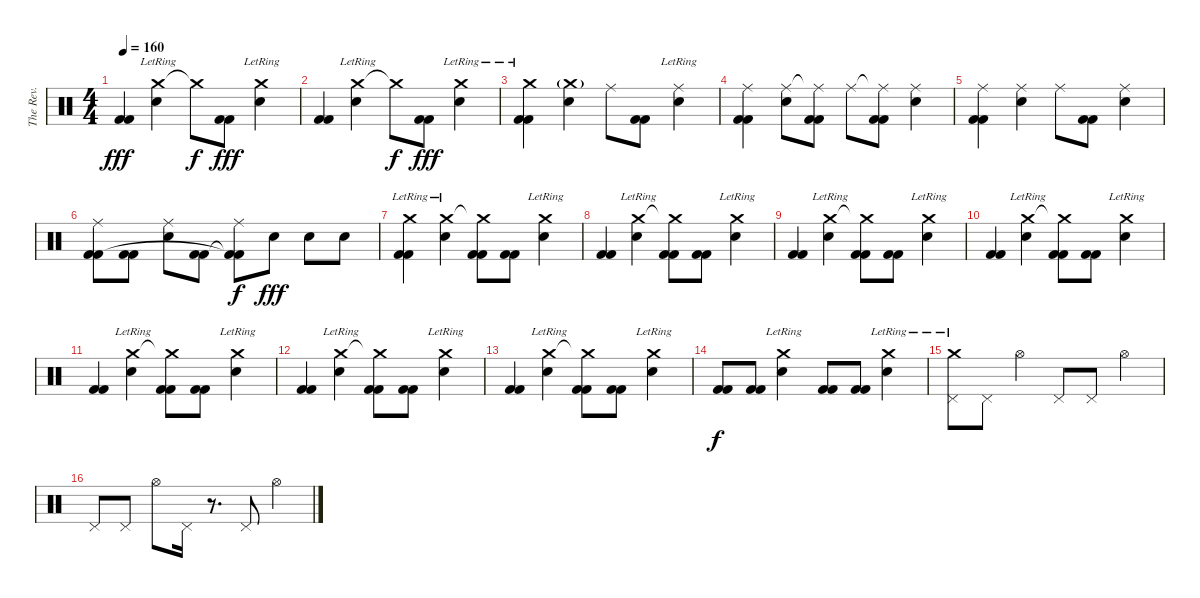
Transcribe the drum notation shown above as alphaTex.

\track ("The Rev." "The Rev.") {instrument percussion}
\staff {score}
\articulation defaults
\ts (4 4)
\tempo 160
\clef neutral
\ks c
("Kick (hit) 2" "Kick (hit) 2").4{dy fff} ("Crash medium (hit)"{lr} "Electric Snare (hit)").4 "Crash medium (hit)"{t}.8{dy f} ("Kick (hit) 2" "Kick (hit) 2").8{dy fff} ("Crash medium (hit)"{lr} "Electric Snare (hit)").4 |
("Kick (hit) 2" "Kick (hit) 2").4 ("Crash medium (hit)"{lr} "Electric Snare (hit)").4 "Crash medium (hit)"{t}.8{dy f} ("Kick (hit) 2" "Kick (hit) 2").8{dy fff} ("Crash medium (hit)"{lr} "Electric Snare (hit)").4 |
("Crash medium (hit)"{lr} "Kick (hit) 2" "Kick (hit) 2").4 ("Crash medium (hit)"{g} "Electric Snare (hit)").4 "Ride (middle)".8 ("Kick (hit) 2" "Kick (hit) 2").8 ("Ride (middle)"{lr} "Electric Snare (hit)").4 |
("Ride (middle)" "Kick (hit) 2" "Kick (hit) 2").4 ("Ride (middle)" "Electric Snare (hit)").8 ("Ride (middle)"{t} "Kick (hit) 2" "Kick (hit) 2").8 "Ride (middle)".8 ("Ride (middle)"{t} "Kick (hit) 2" "Kick (hit) 2").8 ("Ride (middle)" "Electric Snare (hit)").4 |
("Ride (middle)" "Kick (hit) 2" "Kick (hit) 2").4 ("Ride (middle)" "Electric Snare (hit)").4 "Ride (middle)".8 ("Kick (hit) 2" "Kick (hit) 2").8 ("Ride (middle)" "Electric Snare (hit)").4 |
("Ride (middle)" "Kick (hit) 2" "Kick (hit) 2").8 ("Kick (hit) 2" "Kick (hit) 2").8 ("Ride (middle)" "Electric Snare (hit)").8 ("Kick (hit) 2" "Kick (hit) 2").8 ("Ride (middle)" "Kick (hit) 2"{t} "Kick (hit) 2"{t}).8{dy f} "Electric Snare (hit)".8{dy fff} "Electric Snare (hit)".8 "Electric Snare (hit)".8 |
("Crash medium (hit)"{lr} "Kick (hit) 2" "Kick (hit) 2").4 ("Crash medium (hit)"{lr} "Electric Snare (hit)").4 ("Crash medium (hit)"{t} "Kick (hit) 2" "Kick (hit) 2").8 ("Kick (hit) 2" "Kick (hit) 2").8 ("Crash medium (hit)"{lr} "Electric Snare (hit)").4 |
("Kick (hit) 2" "Kick (hit) 2").4 ("Crash medium (hit)"{lr} "Electric Snare (hit)").4 ("Crash medium (hit)"{t} "Kick (hit) 2" "Kick (hit) 2").8 ("Kick (hit) 2" "Kick (hit) 2").8 ("Crash medium (hit)"{lr} "Electric Snare (hit)").4 |
("Kick (hit) 2" "Kick (hit) 2").4 ("Crash medium (hit)"{lr} "Electric Snare (hit)").4 ("Crash medium (hit)"{t} "Kick (hit) 2" "Kick (hit) 2").8 ("Kick (hit) 2" "Kick (hit) 2").8 ("Crash medium (hit)"{lr} "Electric Snare (hit)").4 |
("Kick (hit) 2" "Kick (hit) 2").4 ("Crash medium (hit)"{lr} "Electric Snare (hit)").4 ("Crash medium (hit)"{t} "Kick (hit) 2" "Kick (hit) 2").8 ("Kick (hit) 2" "Kick (hit) 2").8 ("Crash medium (hit)"{lr} "Electric Snare (hit)").4 |
("Kick (hit) 2" "Kick (hit) 2").4 ("Crash medium (hit)"{lr} "Electric Snare (hit)").4 ("Crash medium (hit)"{t} "Kick (hit) 2" "Kick (hit) 2").8 ("Kick (hit) 2" "Kick (hit) 2").8 ("Crash medium (hit)"{lr} "Electric Snare (hit)").4 |
("Kick (hit) 2" "Kick (hit) 2").4 ("Crash medium (hit)"{lr} "Electric Snare (hit)").4 ("Crash medium (hit)"{t} "Kick (hit) 2" "Kick (hit) 2").8 ("Kick (hit) 2" "Kick (hit) 2").8 ("Crash medium (hit)"{lr} "Electric Snare (hit)").4 |
("Kick (hit) 2" "Kick (hit) 2").4 ("Crash medium (hit)"{lr} "Electric Snare (hit)").4 ("Crash medium (hit)"{t} "Kick (hit) 2" "Kick (hit) 2").8 ("Kick (hit) 2" "Kick (hit) 2").8 ("Crash medium (hit)"{lr} "Electric Snare (hit)").4 |
("Kick (hit) 2" "Kick (hit) 2").8{dy f} ("Kick (hit) 2" "Kick (hit) 2").8 ("Crash medium (hit)"{lr} "Electric Snare (hit)").4 ("Kick (hit) 2" "Kick (hit) 2").8 ("Kick (hit) 2" "Kick (hit) 2").8 ("Crash medium (hit)"{lr} "Electric Snare (hit)").4 |
("Crash medium (hit)"{lr} "Pedal Hi-Hat (hit)").8 "Pedal Hi-Hat (hit)".8 "Hi-Hat (open)".4 "Pedal Hi-Hat (hit)".8 "Pedal Hi-Hat (hit)".8 "Hi-Hat (open)".4 |
"Pedal Hi-Hat (hit)".8 "Pedal Hi-Hat (hit)".8 "Hi-Hat (open)".8 "Pedal Hi-Hat (hit)".16 r.8{d} "Pedal Hi-Hat (hit)".8 "Hi-Hat (open)".4
